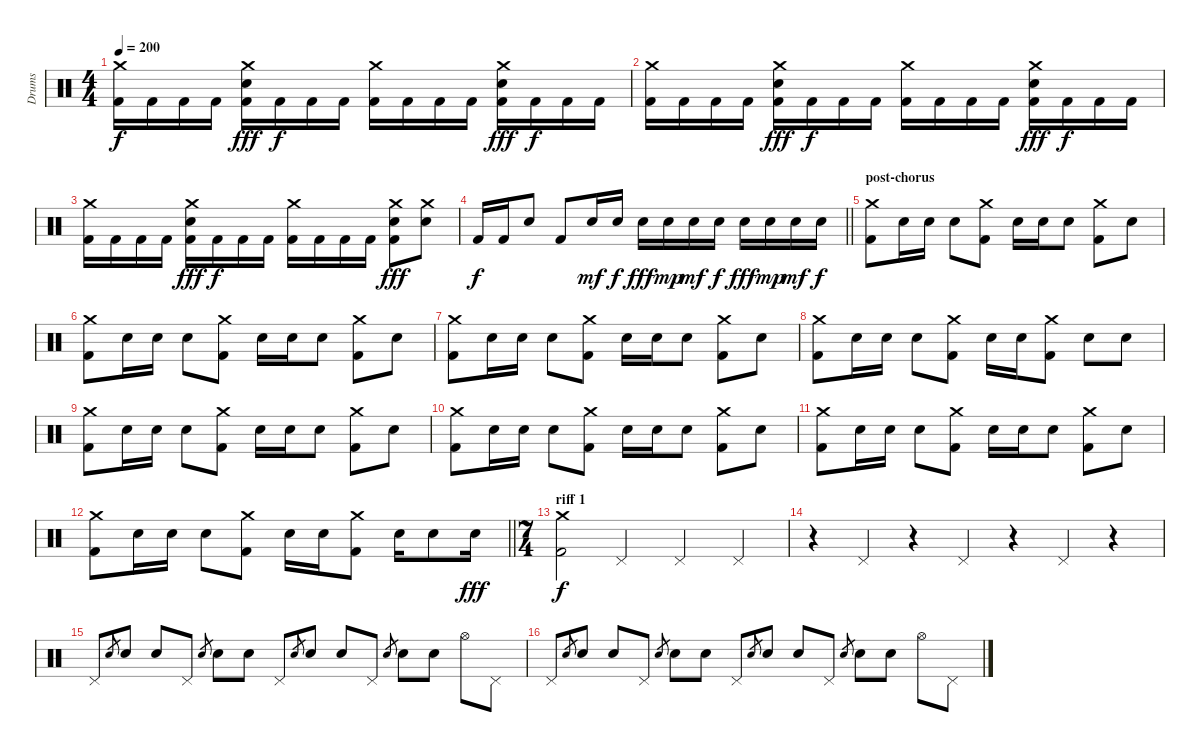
\track ("Drums" "Drums") {instrument percussion}
\staff {score}
\articulation defaults
\ts (4 4)
\tempo 200
\clef neutral
\ks c
("Crash medium (hit)" "Kick (hit) 2").16{dy f} "Kick (hit) 2".16 "Kick (hit) 2".16 "Kick (hit) 2".16 ("Crash medium (hit)" "Electric Snare (hit)" "Kick (hit) 2").16{dy fff} "Kick (hit) 2".16{dy f} "Kick (hit) 2".16 "Kick (hit) 2".16 ("Crash medium (hit)" "Kick (hit) 2").16 "Kick (hit) 2".16 "Kick (hit) 2".16 "Kick (hit) 2".16 ("Crash medium (hit)" "Electric Snare (hit)" "Kick (hit) 2").16{dy fff} "Kick (hit) 2".16{dy f} "Kick (hit) 2".16 "Kick (hit) 2".16 |
("Crash medium (hit)" "Kick (hit) 2").16 "Kick (hit) 2".16 "Kick (hit) 2".16 "Kick (hit) 2".16 ("Crash medium (hit)" "Electric Snare (hit)" "Kick (hit) 2").16{dy fff} "Kick (hit) 2".16{dy f} "Kick (hit) 2".16 "Kick (hit) 2".16 ("Crash medium (hit)" "Kick (hit) 2").16 "Kick (hit) 2".16 "Kick (hit) 2".16 "Kick (hit) 2".16 ("Crash medium (hit)" "Electric Snare (hit)" "Kick (hit) 2").16{dy fff} "Kick (hit) 2".16{dy f} "Kick (hit) 2".16 "Kick (hit) 2".16 |
("Crash medium (hit)" "Kick (hit) 2").16 "Kick (hit) 2".16 "Kick (hit) 2".16 "Kick (hit) 2".16 ("Crash medium (hit)" "Electric Snare (hit)" "Kick (hit) 2").16{dy fff} "Kick (hit) 2".16{dy f} "Kick (hit) 2".16 "Kick (hit) 2".16 ("Crash medium (hit)" "Kick (hit) 2").16 "Kick (hit) 2".16 "Kick (hit) 2".16 "Kick (hit) 2".16 ("Crash medium (hit)" "Electric Snare (hit)" "Kick (hit) 2").8{dy fff} ("Crash medium (hit)" "Electric Snare (hit)").8 |
\barLineRight lightlight "Kick (hit) 2".16{dy f} "Kick (hit) 2".16 "Electric Snare (hit)".8 "Kick (hit) 2".8 "Electric Snare (hit)".16{dy mf} "Electric Snare (hit)".16{dy f} "Electric Snare (hit)".16{dy fff} "Electric Snare (hit)".16{dy mp} "Electric Snare (hit)".16{dy mf} "Electric Snare (hit)".16{dy f} "Electric Snare (hit)".16{dy fff} "Electric Snare (hit)".16{dy mp} "Electric Snare (hit)".16{dy mf} "Electric Snare (hit)".16{dy f}
|
\section ("" "post-chorus")
("Crash medium (hit)" "Kick (hit) 2").8 "Electric Snare (hit)".16 "Electric Snare (hit)".16 "Electric Snare (hit)".8 ("Crash medium (hit)" "Kick (hit) 2").8 "Electric Snare (hit)".16 "Electric Snare (hit)".16 "Electric Snare (hit)".8 ("Crash medium (hit)" "Kick (hit) 2").8 "Electric Snare (hit)".8 |
("Crash medium (hit)" "Kick (hit) 2").8 "Electric Snare (hit)".16 "Electric Snare (hit)".16 "Electric Snare (hit)".8 ("Crash medium (hit)" "Kick (hit) 2").8 "Electric Snare (hit)".16 "Electric Snare (hit)".16 "Electric Snare (hit)".8 ("Crash medium (hit)" "Kick (hit) 2").8 "Electric Snare (hit)".8 |
("Crash medium (hit)" "Kick (hit) 2").8 "Electric Snare (hit)".16 "Electric Snare (hit)".16 "Electric Snare (hit)".8 ("Crash medium (hit)" "Kick (hit) 2").8 "Electric Snare (hit)".16 "Electric Snare (hit)".16 "Electric Snare (hit)".8 ("Crash medium (hit)" "Kick (hit) 2").8 "Electric Snare (hit)".8 |
("Crash medium (hit)" "Kick (hit) 2").8 "Electric Snare (hit)".16 "Electric Snare (hit)".16 "Electric Snare (hit)".8 ("Crash medium (hit)" "Kick (hit) 2").8 "Electric Snare (hit)".16 "Electric Snare (hit)".16 ("Crash medium (hit)" "Kick (hit) 2").8 "Electric Snare (hit)".8 "Electric Snare (hit)".8 |
("Crash medium (hit)" "Kick (hit) 2").8 "Electric Snare (hit)".16 "Electric Snare (hit)".16 "Electric Snare (hit)".8 ("Crash medium (hit)" "Kick (hit) 2").8 "Electric Snare (hit)".16 "Electric Snare (hit)".16 "Electric Snare (hit)".8 ("Crash medium (hit)" "Kick (hit) 2").8 "Electric Snare (hit)".8 |
("Crash medium (hit)" "Kick (hit) 2").8 "Electric Snare (hit)".16 "Electric Snare (hit)".16 "Electric Snare (hit)".8 ("Crash medium (hit)" "Kick (hit) 2").8 "Electric Snare (hit)".16 "Electric Snare (hit)".16 "Electric Snare (hit)".8 ("Crash medium (hit)" "Kick (hit) 2").8 "Electric Snare (hit)".8 |
("Crash medium (hit)" "Kick (hit) 2").8 "Electric Snare (hit)".16 "Electric Snare (hit)".16 "Electric Snare (hit)".8 ("Crash medium (hit)" "Kick (hit) 2").8 "Electric Snare (hit)".16 "Electric Snare (hit)".16 "Electric Snare (hit)".8 ("Crash medium (hit)" "Kick (hit) 2").8 "Electric Snare (hit)".8 |
\barLineRight lightlight
("Crash medium (hit)" "Kick (hit) 2").8 "Electric Snare (hit)".16 "Electric Snare (hit)".16 "Electric Snare (hit)".8 ("Crash medium (hit)" "Kick (hit) 2").8 "Electric Snare (hit)".16 "Electric Snare (hit)".16 ("Crash medium (hit)" "Kick (hit) 2").8 "Electric Snare (hit)".16 "Electric Snare (hit)".8 "Electric Snare (hit)".16{dy fff} |
\ts (7 4)
\section ("" "riff 1")
("Crash medium (hit)" "Kick (hit) 2").2{dy f} "Pedal Hi-Hat (hit)".2 "Pedal Hi-Hat (hit)".2 "Pedal Hi-Hat (hit)".4 |
r.4 "Pedal Hi-Hat (hit)".4 r.4 "Pedal Hi-Hat (hit)".4 r.4 "Pedal Hi-Hat (hit)".4 r.4 |
"Pedal Hi-Hat (hit)".8 "Electric Snare (hit)".8{gr} "Electric Snare (hit)".8 "Electric Snare (hit)".8 "Pedal Hi-Hat (hit)".8 "Electric Snare (hit)".8{gr} "Electric Snare (hit)".8 "Electric Snare (hit)".8 "Pedal Hi-Hat (hit)".8 "Electric Snare (hit)".8{gr} "Electric Snare (hit)".8 "Electric Snare (hit)".8 "Pedal Hi-Hat (hit)".8 "Electric Snare (hit)".8{gr} "Electric Snare (hit)".8 "Electric Snare (hit)".8 "Hi-Hat (open)".8 "Pedal Hi-Hat (hit)".8 |
"Pedal Hi-Hat (hit)".8 "Electric Snare (hit)".8{gr} "Electric Snare (hit)".8 "Electric Snare (hit)".8 "Pedal Hi-Hat (hit)".8 "Electric Snare (hit)".8{gr} "Electric Snare (hit)".8 "Electric Snare (hit)".8 "Pedal Hi-Hat (hit)".8 "Electric Snare (hit)".8{gr} "Electric Snare (hit)".8 "Electric Snare (hit)".8 "Pedal Hi-Hat (hit)".8 "Electric Snare (hit)".8{gr} "Electric Snare (hit)".8 "Electric Snare (hit)".8 "Hi-Hat (open)".8 "Pedal Hi-Hat (hit)".8
